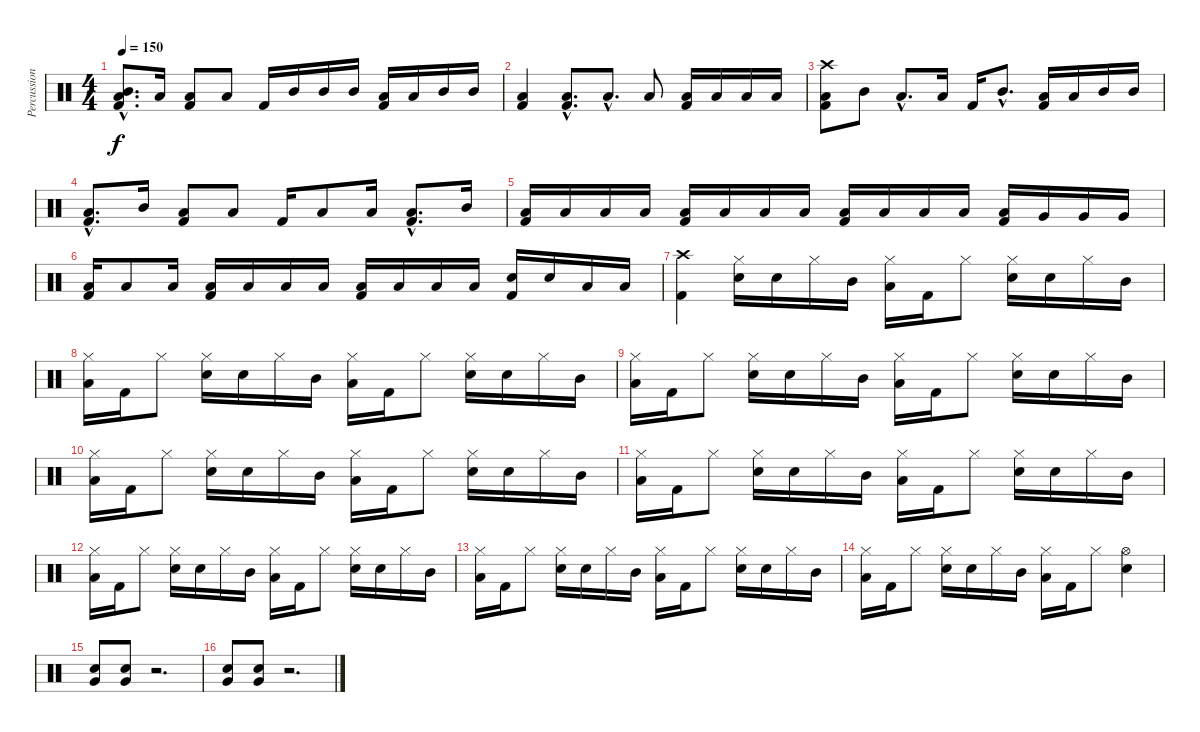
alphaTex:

\track ("Percussion" "Percussion") {instrument percussion}
\staff {score}
\articulation defaults
\ts (4 4)
\tempo 150
\clef neutral
\ks c
("Mid Tom (hit)"{hac} "Low Tom (hit)"{hac} "Kick (hit) 2"{hac}).8{d dy f} "Low Tom (hit)".16 ("Low Tom (hit)" "Kick (hit) 2").8 "Low Tom (hit)".8 "Kick (hit) 2".16 "Mid Tom (hit)".16 "Mid Tom (hit)".16 "Mid Tom (hit)".16 ("Low Tom (hit)" "Kick (hit) 2").16 "Low Tom (hit)".16 "Mid Tom (hit)".16 "Mid Tom (hit)".16 |
("Low Tom (hit)" "Kick (hit) 2").4 ("Low Tom (hit)"{hac} "Kick (hit) 2"{hac}).8{d} "Low Tom (hit)"{hac}.8{d} "Low Tom (hit)".8 ("Low Tom (hit)" "Kick (hit) 2").16 "Low Tom (hit)".16 "Low Tom (hit)".16 "Low Tom (hit)".16 |
("Crash high (hit)" "Low Tom (hit)" "Kick (hit) 2").8 "Mid Tom (hit)".8 "Low Tom (hit)"{hac}.8{d} "Low Tom (hit)".16 "Kick (hit) 2".16 "Mid Tom (hit)"{hac}.8{d} ("Low Tom (hit)" "Kick (hit) 2").16 "Low Tom (hit)".16 "Mid Tom (hit)".16 "Mid Tom (hit)".16 |
("Low Tom (hit)"{hac} "Kick (hit) 2"{hac}).8{d} "Mid Tom (hit)".16 ("Low Tom (hit)" "Kick (hit) 2").8 "Low Tom (hit)".8 "Kick (hit) 2".16 "Low Tom (hit)".8 "Low Tom (hit)".16 ("Low Tom (hit)"{hac} "Kick (hit) 2"{hac}).8{d} "Mid Tom (hit)".16 |
("Low Tom (hit)" "Kick (hit) 2").16 "Low Tom (hit)".16 "Low Tom (hit)".16 "Low Tom (hit)".16 ("Low Tom (hit)" "Kick (hit) 2").16 "Low Tom (hit)".16 "Low Tom (hit)".16 "Low Tom (hit)".16 ("Low Tom (hit)" "Kick (hit) 2").16 "Low Tom (hit)".16 "Low Tom (hit)".16 "Low Tom (hit)".16 ("Low Tom (hit)" "Kick (hit) 2").16 "Very Low Tom (hit)".16 "Very Low Tom (hit)".16 "Very Low Tom (hit)".16 |
("Low Tom (hit)" "Kick (hit) 2").16 "Low Tom (hit)".8 "Low Tom (hit)".16 ("Low Tom (hit)" "Kick (hit) 2").16 "Low Tom (hit)".16 "Low Tom (hit)".16 "Low Tom (hit)".16 ("Low Tom (hit)" "Kick (hit) 2").16 "Low Tom (hit)".16 "Low Tom (hit)".16 "Low Tom (hit)".16 ("Electric Snare (hit)" "Kick (hit) 2").16 "Electric Snare (hit)".16 "Low Tom (hit)".16 "Low Tom (hit)".16 |
("Crash high (hit)" "Kick (hit) 2").4 ("Hi-Hat (closed)" "Electric Snare (hit)").16 "Electric Snare (hit)".16 "Hi-Hat (closed)".16 "Mid Tom (hit)".16 ("Low Tom (hit)" "Hi-Hat (closed)").16 "Kick (hit) 2".16 "Hi-Hat (closed)".8 ("Hi-Hat (closed)" "Electric Snare (hit)").16 "Electric Snare (hit)".16 "Hi-Hat (closed)".16 "Mid Tom (hit)".16 |
("Low Tom (hit)" "Hi-Hat (closed)").16 "Kick (hit) 2".16 "Hi-Hat (closed)".8 ("Hi-Hat (closed)" "Electric Snare (hit)").16 "Electric Snare (hit)".16 "Hi-Hat (closed)".16 "Mid Tom (hit)".16 ("Low Tom (hit)" "Hi-Hat (closed)").16 "Kick (hit) 2".16 "Hi-Hat (closed)".8 ("Hi-Hat (closed)" "Electric Snare (hit)").16 "Electric Snare (hit)".16 "Hi-Hat (closed)".16 "Mid Tom (hit)".16 |
("Low Tom (hit)" "Hi-Hat (closed)").16 "Kick (hit) 2".16 "Hi-Hat (closed)".8 ("Hi-Hat (closed)" "Electric Snare (hit)").16 "Electric Snare (hit)".16 "Hi-Hat (closed)".16 "Mid Tom (hit)".16 ("Low Tom (hit)" "Hi-Hat (closed)").16 "Kick (hit) 2".16 "Hi-Hat (closed)".8 ("Hi-Hat (closed)" "Electric Snare (hit)").16 "Electric Snare (hit)".16 "Hi-Hat (closed)".16 "Mid Tom (hit)".16 |
("Low Tom (hit)" "Hi-Hat (closed)").16 "Kick (hit) 2".16 "Hi-Hat (closed)".8 ("Hi-Hat (closed)" "Electric Snare (hit)").16 "Electric Snare (hit)".16 "Hi-Hat (closed)".16 "Mid Tom (hit)".16 ("Low Tom (hit)" "Hi-Hat (closed)").16 "Kick (hit) 2".16 "Hi-Hat (closed)".8 ("Hi-Hat (closed)" "Electric Snare (hit)").16 "Electric Snare (hit)".16 "Hi-Hat (closed)".16 "Mid Tom (hit)".16 |
("Low Tom (hit)" "Hi-Hat (closed)").16 "Kick (hit) 2".16 "Hi-Hat (closed)".8 ("Hi-Hat (closed)" "Electric Snare (hit)").16 "Electric Snare (hit)".16 "Hi-Hat (closed)".16 "Mid Tom (hit)".16 ("Low Tom (hit)" "Hi-Hat (closed)").16 "Kick (hit) 2".16 "Hi-Hat (closed)".8 ("Hi-Hat (closed)" "Electric Snare (hit)").16 "Electric Snare (hit)".16 "Hi-Hat (closed)".16 "Mid Tom (hit)".16 |
("Low Tom (hit)" "Hi-Hat (closed)").16 "Kick (hit) 2".16 "Hi-Hat (closed)".8 ("Hi-Hat (closed)" "Electric Snare (hit)").16 "Electric Snare (hit)".16 "Hi-Hat (closed)".16 "Mid Tom (hit)".16 ("Low Tom (hit)" "Hi-Hat (closed)").16 "Kick (hit) 2".16 "Hi-Hat (closed)".8 ("Hi-Hat (closed)" "Electric Snare (hit)").16 "Electric Snare (hit)".16 "Hi-Hat (closed)".16 "Mid Tom (hit)".16 |
("Low Tom (hit)" "Hi-Hat (closed)").16 "Kick (hit) 2".16 "Hi-Hat (closed)".8 ("Hi-Hat (closed)" "Electric Snare (hit)").16 "Electric Snare (hit)".16 "Hi-Hat (closed)".16 "Mid Tom (hit)".16 ("Low Tom (hit)" "Hi-Hat (closed)").16 "Kick (hit) 2".16 "Hi-Hat (closed)".8 ("Hi-Hat (closed)" "Electric Snare (hit)").16 "Electric Snare (hit)".16 "Hi-Hat (closed)".16 "Mid Tom (hit)".16 |
("Low Tom (hit)" "Hi-Hat (closed)").16 "Kick (hit) 2".16 "Hi-Hat (closed)".8 ("Hi-Hat (closed)" "Electric Snare (hit)").16 "Electric Snare (hit)".16 "Hi-Hat (closed)".16 "Mid Tom (hit)".16 ("Low Tom (hit)" "Hi-Hat (closed)").16 "Kick (hit) 2".16 "Hi-Hat (closed)".8 ("Hi-Hat (open)" "Electric Snare (hit)").4 |
("Very Low Tom (hit)" "Electric Snare (hit)").8 ("Very Low Tom (hit)" "Electric Snare (hit)").8 r.2{d} |
("Very Low Tom (hit)" "Electric Snare (hit)").8 ("Very Low Tom (hit)" "Electric Snare (hit)").8 r.2{d}
